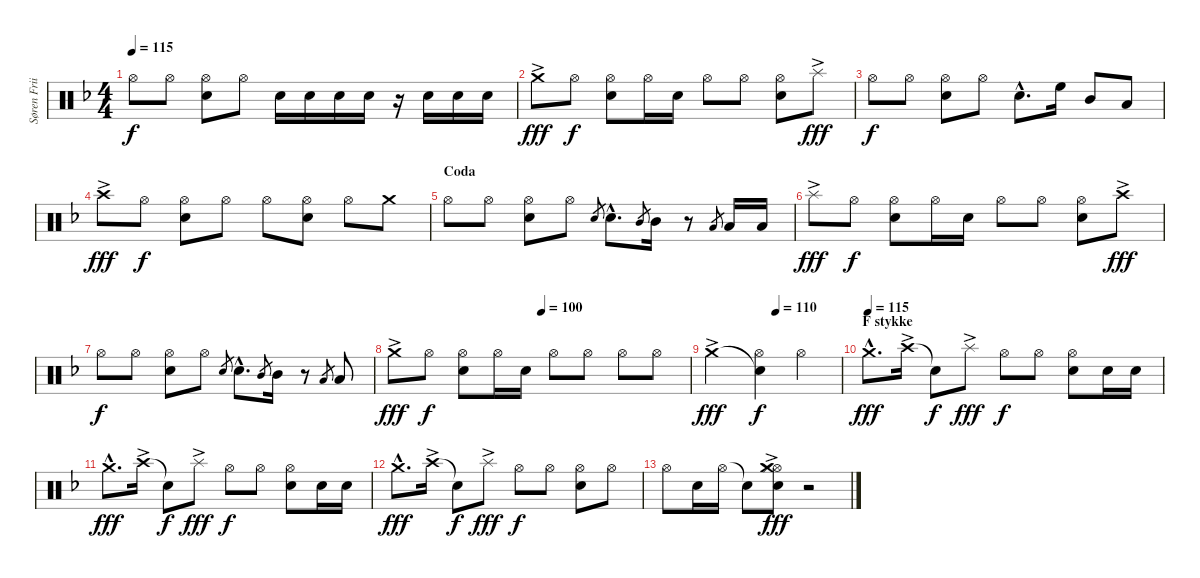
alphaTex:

\track ("Søren Friis (Drums)" "Søren Frii") {instrument percussion}
\staff {score}
\articulation defaults
\ts (4 4)
\tempo 115
\clef neutral
\ks f "Hi-Hat (open)".8{dy f} "Hi-Hat (open)".8
("Hi-Hat (open)" "Snare (hit) 2").8 "Hi-Hat (open)".8 "Snare (hit) 2".16 "Snare (hit) 2".16 "Snare (hit) 2".16 "Snare (hit) 2".16 r.16 "Snare (hit) 2".16 "Snare (hit) 2".16 "Snare (hit) 2".16 |
"Crash medium (hit)"{ac}.8{dy fff} "Hi-Hat (open)".8{dy f} ("Hi-Hat (open)" "Snare (hit) 2").8 "Hi-Hat (open)".16 "Snare (hit) 2".16 "Hi-Hat (open)".8 "Hi-Hat (open)".8 ("Hi-Hat (open)" "Snare (hit) 2").8 "Splash (hit)"{ac}.8{dy fff} |
"Hi-Hat (open)".8{dy f} "Hi-Hat (open)".8 ("Hi-Hat (open)" "Snare (hit) 2").8 "Hi-Hat (open)".8 "Snare (hit) 2"{hac}.8{d} "High Floor Tom (hit)".16 "Mid Tom (hit)".8 "Low Tom (hit)".8 |
"Crash high (hit)"{ac}.8{dy fff} "Hi-Hat (open)".8{dy f} ("Hi-Hat (open)" "Snare (hit) 2").8 "Hi-Hat (open)".8 "Hi-Hat (open)".8 ("Hi-Hat (open)" "Snare (hit) 2").8 "Hi-Hat (open)".8 "Crash medium (hit)".8 |
\section ("" "Coda")
"Hi-Hat (open)".8 "Hi-Hat (open)".8 ("Hi-Hat (open)" "Snare (hit) 2").8 "Hi-Hat (open)".8 "Snare (hit) 2".8{gr} "Snare (hit) 2"{hac}.8{d} "Mid Tom (hit)".8{gr} "Mid Tom (hit)".16 r.8 "Low Tom (hit)".8{gr} "Low Tom (hit)".16 "Low Tom (hit)".16 |
"Splash (hit)"{ac}.8{dy fff} "Hi-Hat (open)".8{dy f} ("Hi-Hat (open)" "Snare (hit) 2").8 "Hi-Hat (open)".16 "Snare (hit) 2".16 "Hi-Hat (open)".8 "Hi-Hat (open)".8 ("Hi-Hat (open)" "Snare (hit) 2").8 "Crash high (hit)"{ac}.8{dy fff} |
"Hi-Hat (open)".8{dy f} "Hi-Hat (open)".8 ("Hi-Hat (open)" "Snare (hit) 2").8 "Hi-Hat (open)".8 "Snare (hit) 2".8{gr} "Snare (hit) 2"{hac}.8{d} "Mid Tom (hit)".8{gr} "Mid Tom (hit)".16 r.8 "Low Tom (hit)".8{gr} "Low Tom (hit)".8 |
\tempo (100 0.5)
"Crash medium (hit)"{ac}.8{dy fff} "Hi-Hat (open)".8{dy f} ("Hi-Hat (open)" "Snare (hit) 2").8 "Hi-Hat (open)".16 "Snare (hit) 2".16 "Hi-Hat (open)".8 "Hi-Hat (open)".8 "Hi-Hat (open)".8 "Hi-Hat (open)".8 |
\tempo (110 0.5)
"Crash medium (hit)"{ac}.2{dy fff} ("Snare (hit)"{t} "Hi-Hat (open)").4{dy f} "Hi-Hat (open)".4 |
\section ("" "F stykke")
\tempo (115)
"Crash medium (hit)"{hac}.8{d dy fff} "Crash high (hit)"{ac}.16 "Snare (hit)"{t}.8{dy f} "Splash (hit)"{ac}.8{dy fff} "Hi-Hat (open)".8{dy f} "Hi-Hat (open)".8 ("Hi-Hat (open)" "Snare (hit) 2").8 "Snare (hit) 2".16 "Snare (hit) 2".16 |
"Crash medium (hit)"{hac}.8{d dy fff} "Crash high (hit)"{ac}.16 "Snare (hit)"{t}.8{dy f} "Splash (hit)"{ac}.8{dy fff} "Hi-Hat (open)".8{dy f} "Hi-Hat (open)".8 ("Hi-Hat (open)" "Snare (hit) 2").8 "Snare (hit) 2".16 "Snare (hit) 2".16 |
"Crash medium (hit)"{hac}.8{d dy fff} "Crash high (hit)"{ac}.16 "Snare (hit)"{t}.8{dy f} "Splash (hit)"{ac}.8{dy fff} "Hi-Hat (open)".8{dy f} "Hi-Hat (open)".8 ("Hi-Hat (open)" "Snare (hit) 2").8 "Hi-Hat (open)".8 |
"Hi-Hat (open)".8 "Snare (hit) 2".16 "Hi-Hat (open)".16 "Snare (hit)"{t}.8 ("Hi-Hat (open)" "Hi-Hat (closed)" "Hand Clap (hit)" "Crash medium (hit)"{ac}).8{dy fff} r.2
